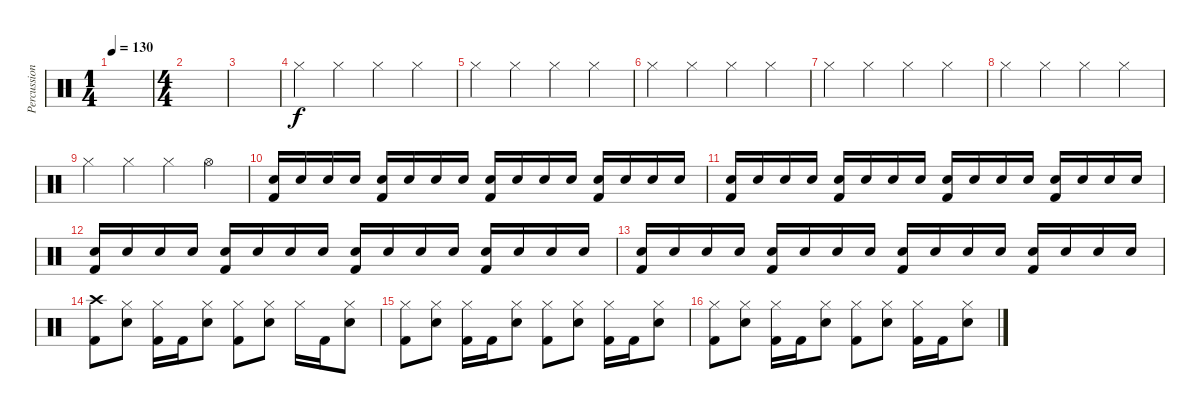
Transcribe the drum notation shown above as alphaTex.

\track ("Percussion" "Percussion") {instrument percussion}
\staff {score}
\articulation defaults
\ts (1 4)
\tempo 130
\clef neutral
\ks c
|
\ts (4 4)
|
|
"Hi-Hat (closed)".4 "Hi-Hat (closed)".4 "Hi-Hat (closed)".4 "Hi-Hat (closed)".4 |
"Hi-Hat (closed)".4 "Hi-Hat (closed)".4 "Hi-Hat (closed)".4 "Hi-Hat (closed)".4 |
"Hi-Hat (closed)".4 "Hi-Hat (closed)".4 "Hi-Hat (closed)".4 "Hi-Hat (closed)".4 |
"Hi-Hat (closed)".4 "Hi-Hat (closed)".4 "Hi-Hat (closed)".4 "Hi-Hat (closed)".4 |
"Hi-Hat (closed)".4 "Hi-Hat (closed)".4 "Hi-Hat (closed)".4 "Hi-Hat (closed)".4 |
"Hi-Hat (closed)".4 "Hi-Hat (closed)".4 "Hi-Hat (closed)".4 "Hi-Hat (open)".4 |
("Snare (hit) 2" "Kick (hit) 2").16 "Electric Snare (hit)".16 "Electric Snare (hit)".16 "Electric Snare (hit)".16 ("Snare (hit) 2" "Kick (hit) 2").16 "Electric Snare (hit)".16 "Electric Snare (hit)".16 "Electric Snare (hit)".16 ("Snare (hit) 2" "Kick (hit) 2").16 "Electric Snare (hit)".16 "Electric Snare (hit)".16 "Electric Snare (hit)".16 ("Snare (hit) 2" "Kick (hit) 2").16 "Electric Snare (hit)".16 "Electric Snare (hit)".16 "Electric Snare (hit)".16 |
("Snare (hit) 2" "Kick (hit) 2").16 "Electric Snare (hit)".16 "Electric Snare (hit)".16 "Electric Snare (hit)".16 ("Snare (hit) 2" "Kick (hit) 2").16 "Electric Snare (hit)".16 "Electric Snare (hit)".16 "Electric Snare (hit)".16 ("Snare (hit) 2" "Kick (hit) 2").16 "Electric Snare (hit)".16 "Electric Snare (hit)".16 "Electric Snare (hit)".16 ("Snare (hit) 2" "Kick (hit) 2").16 "Electric Snare (hit)".16 "Electric Snare (hit)".16 "Electric Snare (hit)".16 |
("Snare (hit) 2" "Kick (hit) 2").16 "Electric Snare (hit)".16 "Electric Snare (hit)".16 "Electric Snare (hit)".16 ("Snare (hit) 2" "Kick (hit) 2").16 "Electric Snare (hit)".16 "Electric Snare (hit)".16 "Electric Snare (hit)".16 ("Snare (hit) 2" "Kick (hit) 2").16 "Electric Snare (hit)".16 "Electric Snare (hit)".16 "Electric Snare (hit)".16 ("Snare (hit) 2" "Kick (hit) 2").16 "Electric Snare (hit)".16 "Electric Snare (hit)".16 "Electric Snare (hit)".16 |
("Snare (hit) 2" "Kick (hit) 2").16 "Electric Snare (hit)".16 "Electric Snare (hit)".16 "Electric Snare (hit)".16 ("Snare (hit) 2" "Kick (hit) 2").16 "Electric Snare (hit)".16 "Electric Snare (hit)".16 "Electric Snare (hit)".16 ("Snare (hit) 2" "Kick (hit) 2").16 "Electric Snare (hit)".16 "Electric Snare (hit)".16 "Electric Snare (hit)".16 ("Snare (hit) 2" "Kick (hit) 2").16 "Electric Snare (hit)".16 "Electric Snare (hit)".16 "Electric Snare (hit)".16 |
("Crash high (hit)" "Kick (hit) 2").8 ("Hi-Hat (closed)" "Electric Snare (hit)").8 ("Hi-Hat (closed)" "Kick (hit) 2").16 "Kick (hit) 2".16 ("Hi-Hat (closed)" "Electric Snare (hit)").8 ("Hi-Hat (closed)" "Kick (hit) 2").8 ("Hi-Hat (closed)" "Electric Snare (hit)").8 "Hi-Hat (closed)".16 "Kick (hit) 2".16 ("Hi-Hat (closed)" "Electric Snare (hit)").8 |
("Hi-Hat (closed)" "Kick (hit) 2").8 ("Hi-Hat (closed)" "Electric Snare (hit)").8 ("Hi-Hat (closed)" "Kick (hit) 2").16 "Kick (hit) 2".16 ("Hi-Hat (closed)" "Electric Snare (hit)").8 ("Hi-Hat (closed)" "Kick (hit) 2").8 ("Hi-Hat (closed)" "Electric Snare (hit)").8 ("Hi-Hat (closed)" "Kick (hit) 2").16 "Kick (hit) 2".16 ("Hi-Hat (closed)" "Electric Snare (hit)").8 |
("Hi-Hat (closed)" "Kick (hit) 2").8 ("Hi-Hat (closed)" "Electric Snare (hit)").8 ("Hi-Hat (closed)" "Kick (hit) 2").16 "Kick (hit) 2".16 ("Hi-Hat (closed)" "Electric Snare (hit)").8 ("Hi-Hat (closed)" "Kick (hit) 2").8 ("Hi-Hat (closed)" "Electric Snare (hit)").8 ("Hi-Hat (closed)" "Kick (hit) 2").16 "Kick (hit) 2".16 ("Hi-Hat (closed)" "Electric Snare (hit)").8
